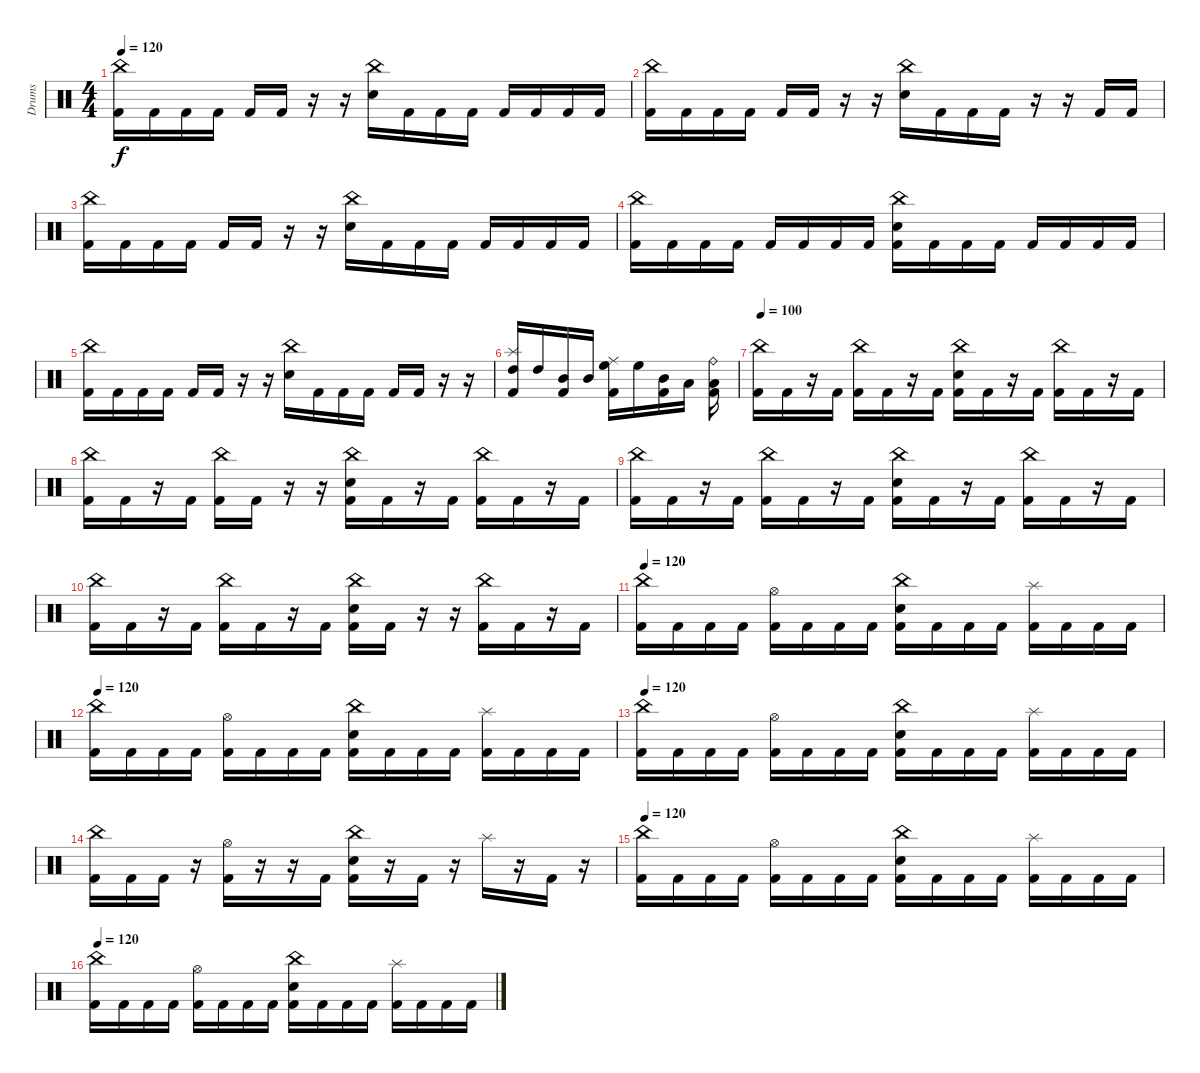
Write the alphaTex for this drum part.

\track ("Drums" "Drums") {instrument percussion}
\staff {score}
\articulation defaults
\ts (4 4)
\tempo 120
\clef neutral
\ks c
("China (hit)" "Kick (hit) 2").16{dy f} "Kick (hit) 2".16 "Kick (hit) 2".16 "Kick (hit) 2".16 "Kick (hit) 2".16 "Kick (hit) 2".16 r.16 r.16 ("China (hit)" "Snare (hit) 2").16 "Kick (hit) 2".16 "Kick (hit) 2".16 "Kick (hit) 2".16 "Kick (hit) 2".16 "Kick (hit) 2".16 "Kick (hit) 2".16 "Kick (hit) 2".16 |
("China (hit)" "Kick (hit) 2").16 "Kick (hit) 2".16 "Kick (hit) 2".16 "Kick (hit) 2".16 "Kick (hit) 2".16 "Kick (hit) 2".16 r.16 r.16 ("China (hit)" "Snare (hit) 2").16 "Kick (hit) 2".16 "Kick (hit) 2".16 "Kick (hit) 2".16 r.16 r.16 "Kick (hit) 2".16 "Kick (hit) 2".16 |
("China (hit)" "Kick (hit) 2").16 "Kick (hit) 2".16 "Kick (hit) 2".16 "Kick (hit) 2".16 "Kick (hit) 2".16 "Kick (hit) 2".16 r.16 r.16 ("China (hit)" "Snare (hit) 2").16 "Kick (hit) 2".16 "Kick (hit) 2".16 "Kick (hit) 2".16 "Kick (hit) 2".16 "Kick (hit) 2".16 "Kick (hit) 2".16 "Kick (hit) 2".16 |
("China (hit)" "Kick (hit) 2").16 "Kick (hit) 2".16 "Kick (hit) 2".16 "Kick (hit) 2".16 "Kick (hit) 2".16 "Kick (hit) 2".16 "Kick (hit) 2".16 "Kick (hit) 2".16 ("China (hit)" "Snare (hit) 2" "Kick (hit) 2").16 "Kick (hit) 2".16 "Kick (hit) 2".16 "Kick (hit) 2".16 "Kick (hit) 2".16 "Kick (hit) 2".16 "Kick (hit) 2".16 "Kick (hit) 2".16 |
("China (hit)" "Kick (hit) 2").16 "Kick (hit) 2".16 "Kick (hit) 2".16 "Kick (hit) 2".16 "Kick (hit) 2".16 "Kick (hit) 2".16 r.16 r.16 ("China (hit)" "Snare (hit) 2").16 "Kick (hit) 2".16 "Kick (hit) 2".16 "Kick (hit) 2".16 "Kick (hit) 2".16 "Kick (hit) 2".16 r.16 r.16 |
("Splash (hit)" "High Tom (hit)" "Kick (hit) 2").16 "High Tom (hit)".16 ("Mid Tom (hit)" "Kick (hit) 2").16 "Mid Tom (hit)".16 ("Ride (middle)" "High Floor Tom (hit)" "Kick (hit) 2").16 "High Floor Tom (hit)".16 ("Mid Tom (hit)" "Kick (hit) 2").16 "Low Tom (hit)".16 ("Ride (bell)" "Low Tom (hit)" "Kick (hit) 2").16 |
\tempo 100
("China (hit)" "Kick (hit) 2").16 "Kick (hit) 2".16 r.16 "Kick (hit) 2".16 ("China (hit)" "Kick (hit) 2").16 "Kick (hit) 2".16 r.16 "Kick (hit) 2".16 ("China (hit)" "Snare (hit) 2" "Kick (hit) 2").16 "Kick (hit) 2".16 r.16 "Kick (hit) 2".16 ("China (hit)" "Kick (hit) 2").16 "Kick (hit) 2".16 r.16 "Kick (hit) 2".16 |
("China (hit)" "Kick (hit) 2").16 "Kick (hit) 2".16 r.16 "Kick (hit) 2".16 ("China (hit)" "Kick (hit) 2").16 "Kick (hit) 2".16 r.16 r.16 ("China (hit)" "Snare (hit) 2" "Kick (hit) 2").16 "Kick (hit) 2".16 r.16 "Kick (hit) 2".16 ("China (hit)" "Kick (hit) 2").16 "Kick (hit) 2".16 r.16 "Kick (hit) 2".16 |
("China (hit)" "Kick (hit) 2").16 "Kick (hit) 2".16 r.16 "Kick (hit) 2".16 ("China (hit)" "Kick (hit) 2").16 "Kick (hit) 2".16 r.16 "Kick (hit) 2".16 ("China (hit)" "Snare (hit) 2" "Kick (hit) 2").16 "Kick (hit) 2".16 r.16 "Kick (hit) 2".16 ("China (hit)" "Kick (hit) 2").16 "Kick (hit) 2".16 r.16 "Kick (hit) 2".16 |
("China (hit)" "Kick (hit) 2").16 "Kick (hit) 2".16 r.16 "Kick (hit) 2".16 ("China (hit)" "Kick (hit) 2").16 "Kick (hit) 2".16 r.16 "Kick (hit) 2".16 ("China (hit)" "Snare (hit) 2" "Kick (hit) 2").16 "Kick (hit) 2".16 r.16 r.16 ("China (hit)" "Kick (hit) 2").16 "Kick (hit) 2".16 r.16 "Kick (hit) 2".16 |
\tempo 120
("China (hit)" "Kick (hit) 2").16 "Kick (hit) 2".16 "Kick (hit) 2".16 "Kick (hit) 2".16 ("Hi-Hat (open)" "Kick (hit) 2").16 "Kick (hit) 2".16 "Kick (hit) 2".16 "Kick (hit) 2".16 ("China (hit)" "Snare (hit) 2" "Kick (hit) 2").16 "Kick (hit) 2".16 "Kick (hit) 2".16 "Kick (hit) 2".16 ("Splash (hit)" "Kick (hit) 2").16 "Kick (hit) 2".16 "Kick (hit) 2".16 "Kick (hit) 2".16 |
\tempo 120
("China (hit)" "Kick (hit) 2").16 "Kick (hit) 2".16 "Kick (hit) 2".16 "Kick (hit) 2".16 ("Hi-Hat (open)" "Kick (hit) 2").16 "Kick (hit) 2".16 "Kick (hit) 2".16 "Kick (hit) 2".16 ("China (hit)" "Snare (hit) 2" "Kick (hit) 2").16 "Kick (hit) 2".16 "Kick (hit) 2".16 "Kick (hit) 2".16 ("Splash (hit)" "Kick (hit) 2").16 "Kick (hit) 2".16 "Kick (hit) 2".16 "Kick (hit) 2".16 |
\tempo 120
("China (hit)" "Kick (hit) 2").16 "Kick (hit) 2".16 "Kick (hit) 2".16 "Kick (hit) 2".16 ("Hi-Hat (open)" "Kick (hit) 2").16 "Kick (hit) 2".16 "Kick (hit) 2".16 "Kick (hit) 2".16 ("China (hit)" "Snare (hit) 2" "Kick (hit) 2").16 "Kick (hit) 2".16 "Kick (hit) 2".16 "Kick (hit) 2".16 ("Splash (hit)" "Kick (hit) 2").16 "Kick (hit) 2".16 "Kick (hit) 2".16 "Kick (hit) 2".16 |
("China (hit)" "Kick (hit) 2").16 "Kick (hit) 2".16 "Kick (hit) 2".16 r.16 ("Hi-Hat (open)" "Kick (hit) 2").16 r.16 r.16 "Kick (hit) 2".16 ("China (hit)" "Snare (hit) 2" "Kick (hit) 2").16 r.16 "Kick (hit) 2".16 r.16 "Splash (hit)".16 r.16 "Kick (hit) 2".16 r.16 |
\tempo 120
("China (hit)" "Kick (hit) 2").16 "Kick (hit) 2".16 "Kick (hit) 2".16 "Kick (hit) 2".16 ("Hi-Hat (open)" "Kick (hit) 2").16 "Kick (hit) 2".16 "Kick (hit) 2".16 "Kick (hit) 2".16 ("China (hit)" "Snare (hit) 2" "Kick (hit) 2").16 "Kick (hit) 2".16 "Kick (hit) 2".16 "Kick (hit) 2".16 ("Splash (hit)" "Kick (hit) 2").16 "Kick (hit) 2".16 "Kick (hit) 2".16 "Kick (hit) 2".16 |
\tempo 120
("China (hit)" "Kick (hit) 2").16 "Kick (hit) 2".16 "Kick (hit) 2".16 "Kick (hit) 2".16 ("Hi-Hat (open)" "Kick (hit) 2").16 "Kick (hit) 2".16 "Kick (hit) 2".16 "Kick (hit) 2".16 ("China (hit)" "Snare (hit) 2" "Kick (hit) 2").16 "Kick (hit) 2".16 "Kick (hit) 2".16 "Kick (hit) 2".16 ("Splash (hit)" "Kick (hit) 2").16 "Kick (hit) 2".16 "Kick (hit) 2".16 "Kick (hit) 2".16
